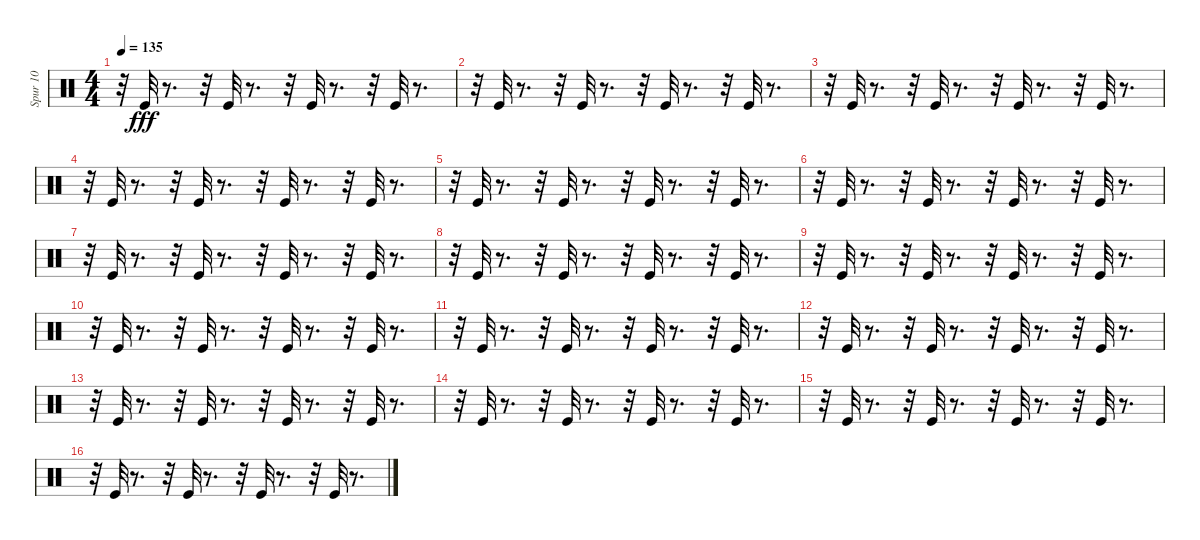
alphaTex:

\track ("Spur 10" "Spur 10") {instrument percussion}
\staff {score}
\articulation defaults
\ts (4 4)
\tempo 135
\clef neutral
\ks c
r.32{dy fff} "Kick (hit)".32 r.8{d} r.32 "Kick (hit)".32 r.8{d} r.32 "Kick (hit)".32 r.8{d} r.32 "Kick (hit)".32 r.8{d} |
r.32 "Kick (hit)".32 r.8{d} r.32 "Kick (hit)".32 r.8{d} r.32 "Kick (hit)".32 r.8{d} r.32 "Kick (hit)".32 r.8{d} |
r.32 "Kick (hit)".32 r.8{d} r.32 "Kick (hit)".32 r.8{d} r.32 "Kick (hit)".32 r.8{d} r.32 "Kick (hit)".32 r.8{d} |
r.32 "Kick (hit)".32 r.8{d} r.32 "Kick (hit)".32 r.8{d} r.32 "Kick (hit)".32 r.8{d} r.32 "Kick (hit)".32 r.8{d} |
r.32 "Kick (hit)".32 r.8{d} r.32 "Kick (hit)".32 r.8{d} r.32 "Kick (hit)".32 r.8{d} r.32 "Kick (hit)".32 r.8{d} |
r.32 "Kick (hit)".32 r.8{d} r.32 "Kick (hit)".32 r.8{d} r.32 "Kick (hit)".32 r.8{d} r.32 "Kick (hit)".32 r.8{d} |
r.32 "Kick (hit)".32 r.8{d} r.32 "Kick (hit)".32 r.8{d} r.32 "Kick (hit)".32 r.8{d} r.32 "Kick (hit)".32 r.8{d} |
r.32 "Kick (hit)".32 r.8{d} r.32 "Kick (hit)".32 r.8{d} r.32 "Kick (hit)".32 r.8{d} r.32 "Kick (hit)".32 r.8{d} |
r.32 "Kick (hit)".32 r.8{d} r.32 "Kick (hit)".32 r.8{d} r.32 "Kick (hit)".32 r.8{d} r.32 "Kick (hit)".32 r.8{d} |
r.32 "Kick (hit)".32 r.8{d} r.32 "Kick (hit)".32 r.8{d} r.32 "Kick (hit)".32 r.8{d} r.32 "Kick (hit)".32 r.8{d} |
r.32 "Kick (hit)".32 r.8{d} r.32 "Kick (hit)".32 r.8{d} r.32 "Kick (hit)".32 r.8{d} r.32 "Kick (hit)".32 r.8{d} |
r.32 "Kick (hit)".32 r.8{d} r.32 "Kick (hit)".32 r.8{d} r.32 "Kick (hit)".32 r.8{d} r.32 "Kick (hit)".32 r.8{d} |
r.32 "Kick (hit)".32 r.8{d} r.32 "Kick (hit)".32 r.8{d} r.32 "Kick (hit)".32 r.8{d} r.32 "Kick (hit)".32 r.8{d} |
r.32 "Kick (hit)".32 r.8{d} r.32 "Kick (hit)".32 r.8{d} r.32 "Kick (hit)".32 r.8{d} r.32 "Kick (hit)".32 r.8{d} |
r.32 "Kick (hit)".32 r.8{d} r.32 "Kick (hit)".32 r.8{d} r.32 "Kick (hit)".32 r.8{d} r.32 "Kick (hit)".32 r.8{d} |
r.32 "Kick (hit)".32 r.8{d} r.32 "Kick (hit)".32 r.8{d} r.32 "Kick (hit)".32 r.8{d} r.32 "Kick (hit)".32 r.8{d}
